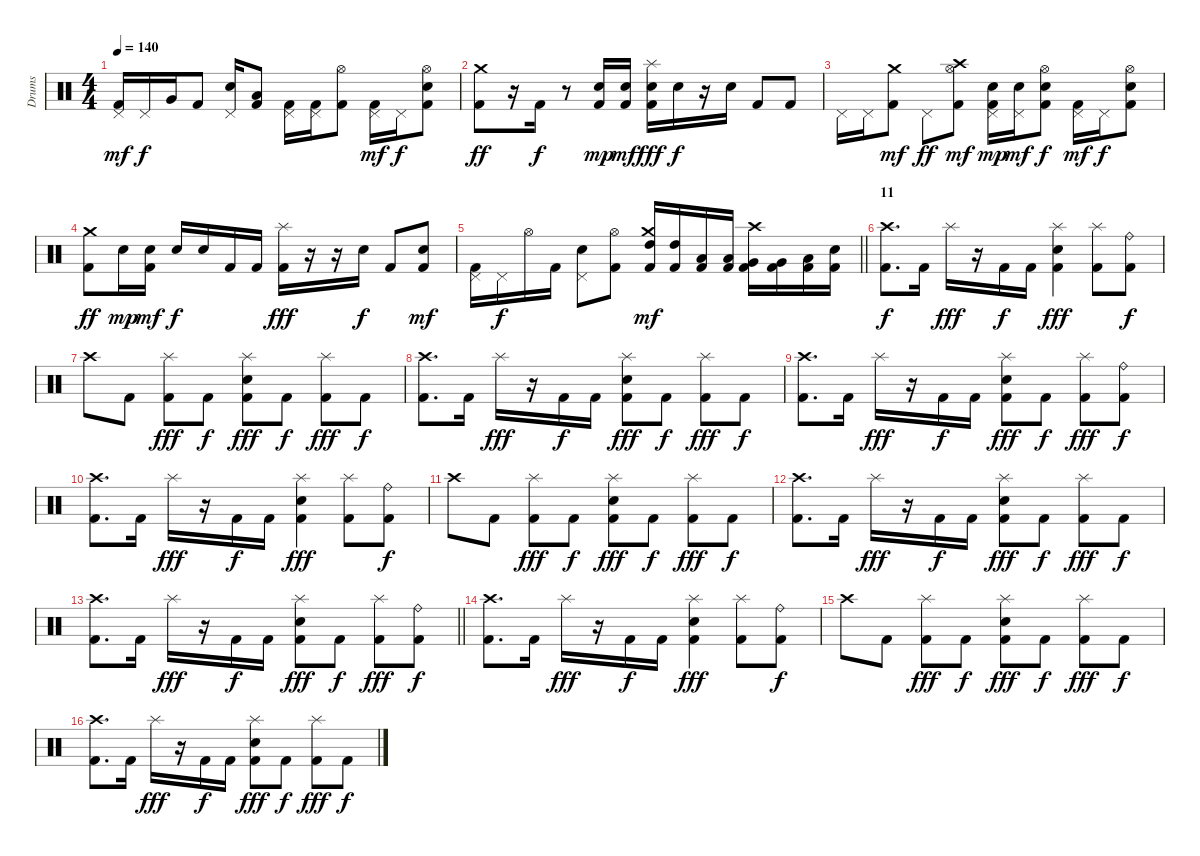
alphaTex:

\track ("Drums" "Drums") {instrument percussion}
\staff {score}
\articulation defaults
\ts (4 4)
\tempo 140
\clef neutral
\ks c
("Pedal Hi-Hat (hit)" "Kick (hit) 2").16{dy mf} "Pedal Hi-Hat (hit)".16{dy f} "Very Low Tom (hit)".16 "Kick (hit) 2".8 ("Pedal Hi-Hat (hit)" "Electric Snare (hit)").16 ("Low Floor Tom (hit)" "Kick (hit) 2").8 ("Pedal Hi-Hat (hit)" "Kick (hit) 2").16 ("Pedal Hi-Hat (hit)" "Kick (hit) 2").16 ("Hi-Hat (open)" "Kick (hit) 2").8 ("Pedal Hi-Hat (hit)" "Kick (hit) 2").16{dy mf} "Pedal Hi-Hat (hit)".16{dy f} ("Hi-Hat (open)" "Electric Snare (hit)" "Kick (hit) 2").8 |
("Crash medium (hit)" "Kick (hit) 2").8{dy ff} r.16 "Kick (hit) 2".16{dy f} r.8 ("Electric Snare (hit)" "Kick (hit) 2").16{dy mp} ("Electric Snare (hit)" "Kick (hit) 2").16{dy mf} ("Splash (hit)" "Electric Snare (hit)" "Kick (hit) 2").16{dy fff} "Electric Snare (hit)".16{dy f} r.16 "Electric Snare (hit)".16 "Kick (hit) 2".8 "Kick (hit) 2".8 |
"Pedal Hi-Hat (hit)".16 "Pedal Hi-Hat (hit)".16 ("Crash medium (hit)" "Kick (hit) 2").8{dy mf} "Pedal Hi-Hat (hit)".8{dy ff} ("Crash high (hit)" "Hi-Hat (open)" "Kick (hit) 2").8{dy mf} ("Pedal Hi-Hat (hit)" "Electric Snare (hit)" "Kick (hit) 2").16{dy mp} ("Pedal Hi-Hat (hit)" "Electric Snare (hit)").16{dy mf} ("Hi-Hat (open)" "Electric Snare (hit)" "Kick (hit) 2").8{dy f} ("Pedal Hi-Hat (hit)" "Kick (hit) 2").16{dy mf} "Pedal Hi-Hat (hit)".16{dy f} ("Hi-Hat (open)" "Electric Snare (hit)" "Kick (hit) 2").8 |
("Crash medium (hit)" "Kick (hit) 2").8{dy ff} "Electric Snare (hit)".16{dy mp} ("Electric Snare (hit)" "Kick (hit) 2").16{dy mf} "Electric Snare (hit)".16{dy f} "Electric Snare (hit)".16 "Kick (hit) 2".16 "Kick (hit) 2".16 ("Splash (hit)" "Kick (hit) 2").16{dy fff} r.16 r.16 "Electric Snare (hit)".16{dy f} "Kick (hit) 2".8 ("Electric Snare (hit)" "Kick (hit) 2").8{dy mf} |
\barLineRight lightlight
("Pedal Hi-Hat (hit)" "Kick (hit) 2").16 "Pedal Hi-Hat (hit)".16{dy f} "Hi-Hat (open)".16 "Kick (hit) 2".16 ("Pedal Hi-Hat (hit)" "Electric Snare (hit)").8 ("Hi-Hat (open)" "Kick (hit) 2").8 ("Crash medium (hit)" "High Tom (hit)" "Kick (hit) 2").16{dy mf} ("High Tom (hit)" "Kick (hit) 2").16 ("Low Tom (hit)" "Kick (hit) 2").16 ("Low Tom (hit)" "Kick (hit) 2").16 ("Crash high (hit)" "Very Low Tom (hit)" "Kick (hit) 2").16 ("Very Low Tom (hit)" "Kick (hit) 2").16 ("Low Floor Tom (hit)" "Kick (hit) 2").16 ("Electric Snare (hit)" "Kick (hit) 2").16 |
\section ("" "11")
("Crash high (hit)" "Kick (hit) 2").8{d dy f} "Kick (hit) 2".16 "Splash (hit)".16{dy fff} r.16 "Kick (hit) 2".16{dy f} "Kick (hit) 2".16 ("Splash (hit)" "Electric Snare (hit)" "Kick (hit) 2").4{dy fff} ("Splash (hit)" "Kick (hit) 2").8 ("Ride (bell)" "Kick (hit) 2").8{dy f} |
"Crash high (hit)".8 "Kick (hit) 2".8 ("Splash (hit)" "Kick (hit) 2").8{dy fff} "Kick (hit) 2".8{dy f} ("Splash (hit)" "Electric Snare (hit)" "Kick (hit) 2").8{dy fff} "Kick (hit) 2".8{dy f} ("Splash (hit)" "Kick (hit) 2").8{dy fff} "Kick (hit) 2".8{dy f} |
("Crash high (hit)" "Kick (hit) 2").8{d} "Kick (hit) 2".16 "Splash (hit)".16{dy fff} r.16 "Kick (hit) 2".16{dy f} "Kick (hit) 2".16 ("Splash (hit)" "Electric Snare (hit)" "Kick (hit) 2").8{dy fff} "Kick (hit) 2".8{dy f} ("Splash (hit)" "Kick (hit) 2").8{dy fff} "Kick (hit) 2".8{dy f} |
("Crash high (hit)" "Kick (hit) 2").8{d} "Kick (hit) 2".16 "Splash (hit)".16{dy fff} r.16 "Kick (hit) 2".16{dy f} "Kick (hit) 2".16 ("Splash (hit)" "Electric Snare (hit)" "Kick (hit) 2").8{dy fff} "Kick (hit) 2".8{dy f} ("Splash (hit)" "Kick (hit) 2").8{dy fff} ("Ride (bell)" "Kick (hit) 2").8{dy f} |
("Crash high (hit)" "Kick (hit) 2").8{d} "Kick (hit) 2".16 "Splash (hit)".16{dy fff} r.16 "Kick (hit) 2".16{dy f} "Kick (hit) 2".16 ("Splash (hit)" "Electric Snare (hit)" "Kick (hit) 2").4{dy fff} ("Splash (hit)" "Kick (hit) 2").8 ("Ride (bell)" "Kick (hit) 2").8{dy f} |
"Crash high (hit)".8 "Kick (hit) 2".8 ("Splash (hit)" "Kick (hit) 2").8{dy fff} "Kick (hit) 2".8{dy f} ("Splash (hit)" "Electric Snare (hit)" "Kick (hit) 2").8{dy fff} "Kick (hit) 2".8{dy f} ("Splash (hit)" "Kick (hit) 2").8{dy fff} "Kick (hit) 2".8{dy f} |
("Crash high (hit)" "Kick (hit) 2").8{d} "Kick (hit) 2".16 "Splash (hit)".16{dy fff} r.16 "Kick (hit) 2".16{dy f} "Kick (hit) 2".16 ("Splash (hit)" "Electric Snare (hit)" "Kick (hit) 2").8{dy fff} "Kick (hit) 2".8{dy f} ("Splash (hit)" "Kick (hit) 2").8{dy fff} "Kick (hit) 2".8{dy f} |
\barLineRight lightlight
("Crash high (hit)" "Kick (hit) 2").8{d} "Kick (hit) 2".16 "Splash (hit)".16{dy fff} r.16 "Kick (hit) 2".16{dy f} "Kick (hit) 2".16 ("Splash (hit)" "Electric Snare (hit)" "Kick (hit) 2").8{dy fff} "Kick (hit) 2".8{dy f} ("Splash (hit)" "Kick (hit) 2").8{dy fff} ("Ride (bell)" "Kick (hit) 2").8{dy f} |
("Crash high (hit)" "Kick (hit) 2").8{d} "Kick (hit) 2".16 "Splash (hit)".16{dy fff} r.16 "Kick (hit) 2".16{dy f} "Kick (hit) 2".16 ("Splash (hit)" "Electric Snare (hit)" "Kick (hit) 2").4{dy fff} ("Splash (hit)" "Kick (hit) 2").8 ("Ride (bell)" "Kick (hit) 2").8{dy f} |
"Crash high (hit)".8 "Kick (hit) 2".8 ("Splash (hit)" "Kick (hit) 2").8{dy fff} "Kick (hit) 2".8{dy f} ("Splash (hit)" "Electric Snare (hit)" "Kick (hit) 2").8{dy fff} "Kick (hit) 2".8{dy f} ("Splash (hit)" "Kick (hit) 2").8{dy fff} "Kick (hit) 2".8{dy f} |
("Crash high (hit)" "Kick (hit) 2").8{d} "Kick (hit) 2".16 "Splash (hit)".16{dy fff} r.16 "Kick (hit) 2".16{dy f} "Kick (hit) 2".16 ("Splash (hit)" "Electric Snare (hit)" "Kick (hit) 2").8{dy fff} "Kick (hit) 2".8{dy f} ("Splash (hit)" "Kick (hit) 2").8{dy fff} "Kick (hit) 2".8{dy f}
